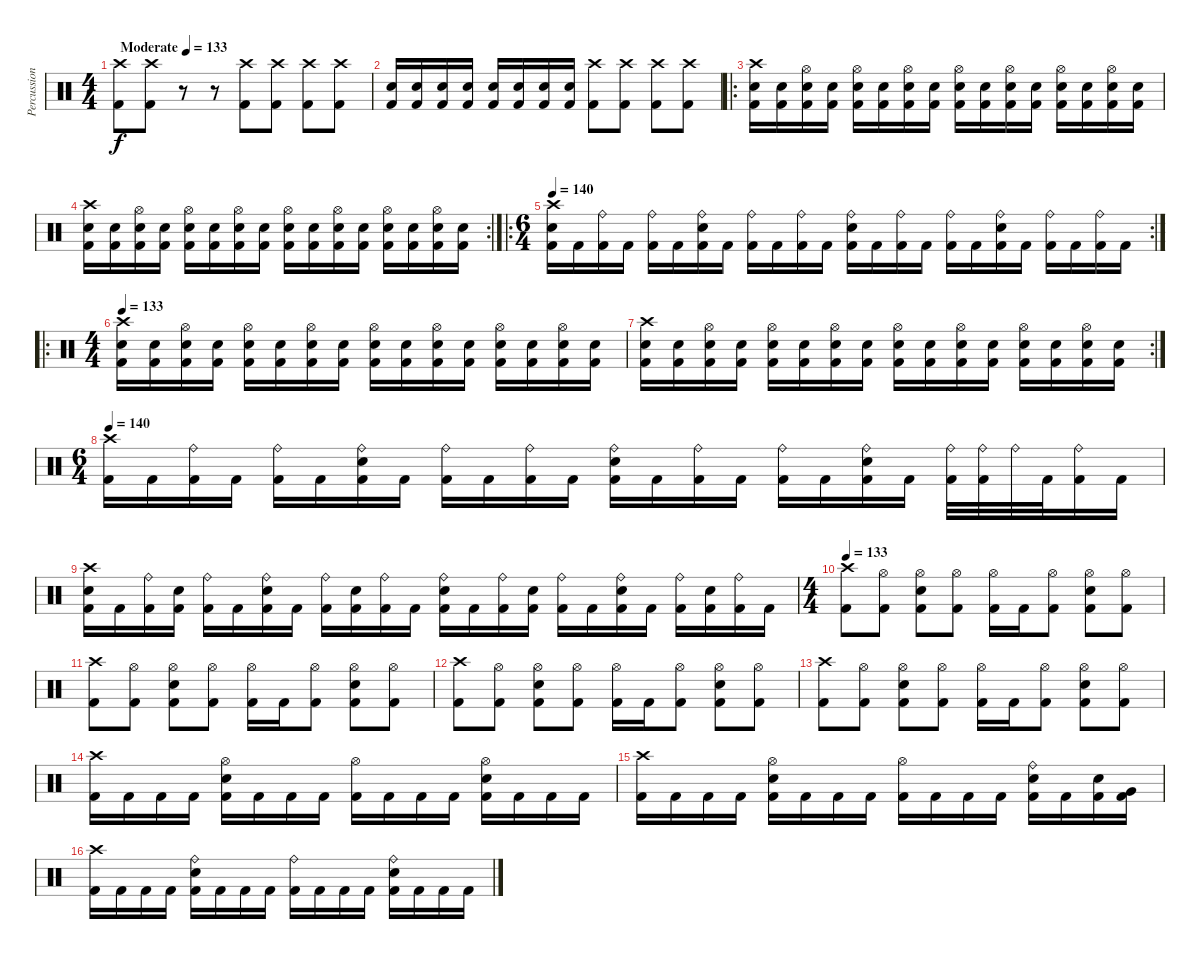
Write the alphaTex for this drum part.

\track ("Percussion" "Percussion") {instrument percussion}
\staff {score}
\articulation defaults
\ts (4 4)
\tempo (133 "Moderate")
\clef neutral
\ks c
("Crash high (hit)" "Kick (hit) 2").8{dy f} ("Crash high (hit)" "Kick (hit) 2").8 r.8{volume 0} r.8 ("Crash high (hit)" "Kick (hit) 2").8{volume 13} ("Crash high (hit)" "Kick (hit) 2").8 ("Crash high (hit)" "Kick (hit) 2").8 ("Crash high (hit)" "Kick (hit) 2").8 |
("Snare (hit) 2" "Kick (hit) 2").16{volume 13} ("Snare (hit) 2" "Kick (hit) 2").16 ("Snare (hit) 2" "Kick (hit) 2").16 ("Snare (hit) 2" "Kick (hit) 2").16 ("Snare (hit) 2" "Kick (hit) 2").16 ("Snare (hit) 2" "Kick (hit) 2").16 ("Snare (hit) 2" "Kick (hit) 2").16 ("Snare (hit) 2" "Kick (hit) 2").16 ("Crash high (hit)" "Kick (hit) 2").8 ("Crash high (hit)" "Kick (hit) 2").8 ("Crash high (hit)" "Kick (hit) 2").8 ("Crash high (hit)" "Kick (hit) 2").8 |
\ro
("Crash high (hit)" "Snare (hit) 2" "Kick (hit) 2").16 ("Snare (hit) 2" "Kick (hit) 2").16 ("Hi-Hat (open)" "Snare (hit) 2" "Kick (hit) 2").16 ("Snare (hit) 2" "Kick (hit) 2").16 ("Hi-Hat (open)" "Snare (hit) 2" "Kick (hit) 2").16 ("Snare (hit) 2" "Kick (hit) 2").16 ("Hi-Hat (open)" "Snare (hit) 2" "Kick (hit) 2").16 ("Snare (hit) 2" "Kick (hit) 2").16 ("Hi-Hat (open)" "Snare (hit) 2" "Kick (hit) 2").16 ("Snare (hit) 2" "Kick (hit) 2").16 ("Hi-Hat (open)" "Snare (hit) 2" "Kick (hit) 2").16 ("Snare (hit) 2" "Kick (hit) 2").16 ("Hi-Hat (open)" "Snare (hit) 2" "Kick (hit) 2").16 ("Snare (hit) 2" "Kick (hit) 2").16 ("Hi-Hat (open)" "Snare (hit) 2" "Kick (hit) 2").16 ("Snare (hit) 2" "Kick (hit) 2").16 |
\rc 2
("Crash high (hit)" "Snare (hit) 2" "Kick (hit) 2").16 ("Snare (hit) 2" "Kick (hit) 2").16 ("Hi-Hat (open)" "Snare (hit) 2" "Kick (hit) 2").16 ("Snare (hit) 2" "Kick (hit) 2").16 ("Hi-Hat (open)" "Snare (hit) 2" "Kick (hit) 2").16 ("Snare (hit) 2" "Kick (hit) 2").16 ("Hi-Hat (open)" "Snare (hit) 2" "Kick (hit) 2").16 ("Snare (hit) 2" "Kick (hit) 2").16 ("Hi-Hat (open)" "Snare (hit) 2" "Kick (hit) 2").16 ("Snare (hit) 2" "Kick (hit) 2").16 ("Hi-Hat (open)" "Snare (hit) 2" "Kick (hit) 2").16 ("Snare (hit) 2" "Kick (hit) 2").16 ("Hi-Hat (open)" "Snare (hit) 2" "Kick (hit) 2").16 ("Snare (hit) 2" "Kick (hit) 2").16 ("Hi-Hat (open)" "Snare (hit) 2" "Kick (hit) 2").16 ("Snare (hit) 2" "Kick (hit) 2").16 |
\ro
\rc 2
\ts (6 4)
\tempo 140
("Crash high (hit)" "Snare (hit) 2" "Kick (hit) 2").16 "Kick (hit) 2".16 ("Ride (bell)" "Kick (hit) 2").16 "Kick (hit) 2".16 ("Ride (bell)" "Kick (hit) 2").16 "Kick (hit) 2".16 ("Ride (bell)" "Snare (hit) 2" "Kick (hit) 2").16 "Kick (hit) 2".16 ("Ride (bell)" "Kick (hit) 2").16 "Kick (hit) 2".16 ("Ride (bell)" "Kick (hit) 2").16 "Kick (hit) 2".16 ("Ride (bell)" "Snare (hit) 2" "Kick (hit) 2").16 "Kick (hit) 2".16 ("Ride (bell)" "Kick (hit) 2").16 "Kick (hit) 2".16 ("Ride (bell)" "Kick (hit) 2").16 "Kick (hit) 2".16 ("Ride (bell)" "Snare (hit) 2" "Kick (hit) 2").16 "Kick (hit) 2".16 ("Ride (bell)" "Kick (hit) 2").16 "Kick (hit) 2".16 ("Ride (bell)" "Kick (hit) 2").16 "Kick (hit) 2".16 |
\ro
\ts (4 4)
\tempo 133
("Crash high (hit)" "Snare (hit) 2" "Kick (hit) 2").16 ("Snare (hit) 2" "Kick (hit) 2").16 ("Hi-Hat (open)" "Snare (hit) 2" "Kick (hit) 2").16 ("Snare (hit) 2" "Kick (hit) 2").16 ("Hi-Hat (open)" "Snare (hit) 2" "Kick (hit) 2").16 ("Snare (hit) 2" "Kick (hit) 2").16 ("Hi-Hat (open)" "Snare (hit) 2" "Kick (hit) 2").16 ("Snare (hit) 2" "Kick (hit) 2").16 ("Hi-Hat (open)" "Snare (hit) 2" "Kick (hit) 2").16 ("Snare (hit) 2" "Kick (hit) 2").16 ("Hi-Hat (open)" "Snare (hit) 2" "Kick (hit) 2").16 ("Snare (hit) 2" "Kick (hit) 2").16 ("Hi-Hat (open)" "Snare (hit) 2" "Kick (hit) 2").16 ("Snare (hit) 2" "Kick (hit) 2").16 ("Hi-Hat (open)" "Snare (hit) 2" "Kick (hit) 2").16 ("Snare (hit) 2" "Kick (hit) 2").16 |
\rc 2
("Crash high (hit)" "Snare (hit) 2" "Kick (hit) 2").16 ("Snare (hit) 2" "Kick (hit) 2").16 ("Hi-Hat (open)" "Snare (hit) 2" "Kick (hit) 2").16 ("Snare (hit) 2" "Kick (hit) 2").16 ("Hi-Hat (open)" "Snare (hit) 2" "Kick (hit) 2").16 ("Snare (hit) 2" "Kick (hit) 2").16 ("Hi-Hat (open)" "Snare (hit) 2" "Kick (hit) 2").16 ("Snare (hit) 2" "Kick (hit) 2").16 ("Hi-Hat (open)" "Snare (hit) 2" "Kick (hit) 2").16 ("Snare (hit) 2" "Kick (hit) 2").16 ("Hi-Hat (open)" "Snare (hit) 2" "Kick (hit) 2").16 ("Snare (hit) 2" "Kick (hit) 2").16 ("Hi-Hat (open)" "Snare (hit) 2" "Kick (hit) 2").16 ("Snare (hit) 2" "Kick (hit) 2").16 ("Hi-Hat (open)" "Snare (hit) 2" "Kick (hit) 2").16 ("Snare (hit) 2" "Kick (hit) 2").16 |
\ts (6 4)
\tempo 140
("Crash high (hit)" "Kick (hit) 2").16 "Kick (hit) 2".16 ("Ride (bell)" "Kick (hit) 2").16 "Kick (hit) 2".16 ("Ride (bell)" "Kick (hit) 2").16 "Kick (hit) 2".16 ("Ride (bell)" "Snare (hit) 2" "Kick (hit) 2").16 "Kick (hit) 2".16 ("Ride (bell)" "Kick (hit) 2").16 "Kick (hit) 2".16 ("Ride (bell)" "Kick (hit) 2").16 "Kick (hit) 2".16 ("Ride (bell)" "Snare (hit) 2" "Kick (hit) 2").16 "Kick (hit) 2".16 ("Ride (bell)" "Kick (hit) 2").16 "Kick (hit) 2".16 ("Ride (bell)" "Kick (hit) 2").16 "Kick (hit) 2".16 ("Ride (bell)" "Snare (hit) 2" "Kick (hit) 2").16 "Kick (hit) 2".16 ("Ride (bell)" "Kick (hit) 2").32 ("Ride (bell)" "Kick (hit) 2").32 "Ride (bell)".32 "Kick (hit) 2".32 ("Ride (bell)" "Kick (hit) 2").16 "Kick (hit) 2".16 |
("Crash high (hit)" "Snare (hit) 2" "Kick (hit) 2").16 "Kick (hit) 2".16 ("Ride (bell)" "Kick (hit) 2").16 ("Snare (hit) 2" "Kick (hit) 2").16 ("Ride (bell)" "Kick (hit) 2").16 "Kick (hit) 2".16 ("Ride (bell)" "Snare (hit) 2" "Kick (hit) 2").16 "Kick (hit) 2".16 ("Ride (bell)" "Kick (hit) 2").16 ("Snare (hit) 2" "Kick (hit) 2").16 ("Ride (bell)" "Kick (hit) 2").16 "Kick (hit) 2".16 ("Ride (bell)" "Snare (hit) 2" "Kick (hit) 2").16 "Kick (hit) 2".16 ("Ride (bell)" "Kick (hit) 2").16 ("Snare (hit) 2" "Kick (hit) 2").16 ("Ride (bell)" "Kick (hit) 2").16 "Kick (hit) 2".16 ("Ride (bell)" "Snare (hit) 2" "Kick (hit) 2").16 "Kick (hit) 2".16 ("Ride (bell)" "Kick (hit) 2").16 ("Snare (hit) 2" "Kick (hit) 2").16 ("Ride (bell)" "Kick (hit) 2").16 "Kick (hit) 2".16 |
\ts (4 4)
\tempo 133
("Crash high (hit)" "Kick (hit) 2").8 ("Hi-Hat (open)" "Kick (hit) 2").8 ("Hi-Hat (open)" "Snare (hit) 2" "Kick (hit) 2").8 ("Hi-Hat (open)" "Kick (hit) 2").8 ("Hi-Hat (open)" "Kick (hit) 2").16 "Kick (hit) 2".16 ("Hi-Hat (open)" "Kick (hit) 2").8 ("Hi-Hat (open)" "Snare (hit) 2" "Kick (hit) 2").8 ("Hi-Hat (open)" "Kick (hit) 2").8 |
("Crash high (hit)" "Kick (hit) 2").8 ("Hi-Hat (open)" "Kick (hit) 2").8 ("Hi-Hat (open)" "Snare (hit) 2" "Kick (hit) 2").8 ("Hi-Hat (open)" "Kick (hit) 2").8 ("Hi-Hat (open)" "Kick (hit) 2").16 "Kick (hit) 2".16 ("Hi-Hat (open)" "Kick (hit) 2").8 ("Hi-Hat (open)" "Snare (hit) 2" "Kick (hit) 2").8 ("Hi-Hat (open)" "Kick (hit) 2").8 |
("Crash high (hit)" "Kick (hit) 2").8 ("Hi-Hat (open)" "Kick (hit) 2").8 ("Hi-Hat (open)" "Snare (hit) 2" "Kick (hit) 2").8 ("Hi-Hat (open)" "Kick (hit) 2").8 ("Hi-Hat (open)" "Kick (hit) 2").16 "Kick (hit) 2".16 ("Hi-Hat (open)" "Kick (hit) 2").8 ("Hi-Hat (open)" "Snare (hit) 2" "Kick (hit) 2").8 ("Hi-Hat (open)" "Kick (hit) 2").8 |
("Crash high (hit)" "Kick (hit) 2").8 ("Hi-Hat (open)" "Kick (hit) 2").8 ("Hi-Hat (open)" "Snare (hit) 2" "Kick (hit) 2").8 ("Hi-Hat (open)" "Kick (hit) 2").8 ("Hi-Hat (open)" "Kick (hit) 2").16 "Kick (hit) 2".16 ("Hi-Hat (open)" "Kick (hit) 2").8 ("Hi-Hat (open)" "Snare (hit) 2" "Kick (hit) 2").8 ("Hi-Hat (open)" "Kick (hit) 2").8 |
("Crash high (hit)" "Kick (hit) 2").16 "Kick (hit) 2".16 "Kick (hit) 2".16 "Kick (hit) 2".16 ("Hi-Hat (open)" "Snare (hit) 2" "Kick (hit) 2").16 "Kick (hit) 2".16 "Kick (hit) 2".16 "Kick (hit) 2".16 ("Hi-Hat (open)" "Kick (hit) 2").16 "Kick (hit) 2".16 "Kick (hit) 2".16 "Kick (hit) 2".16 ("Hi-Hat (open)" "Snare (hit) 2" "Kick (hit) 2").16 "Kick (hit) 2".16 "Kick (hit) 2".16 "Kick (hit) 2".16 |
("Crash high (hit)" "Kick (hit) 2").16 "Kick (hit) 2".16 "Kick (hit) 2".16 "Kick (hit) 2".16 ("Hi-Hat (open)" "Snare (hit) 2" "Kick (hit) 2").16 "Kick (hit) 2".16 "Kick (hit) 2".16 "Kick (hit) 2".16 ("Hi-Hat (open)" "Kick (hit) 2").16 "Kick (hit) 2".16 "Kick (hit) 2".16 "Kick (hit) 2".16 ("Ride (bell)" "Snare (hit) 2" "Kick (hit) 2").16 "Kick (hit) 2".16 ("Snare (hit) 2" "Kick (hit) 2").16 ("Very Low Tom (hit)" "Kick (hit) 2").16 |
("Crash high (hit)" "Kick (hit) 2").16 "Kick (hit) 2".16 "Kick (hit) 2".16 "Kick (hit) 2".16 ("Ride (bell)" "Snare (hit) 2" "Kick (hit) 2").16 "Kick (hit) 2".16 "Kick (hit) 2".16 "Kick (hit) 2".16 ("Ride (bell)" "Kick (hit) 2").16 "Kick (hit) 2".16 "Kick (hit) 2".16 "Kick (hit) 2".16 ("Ride (bell)" "Snare (hit) 2" "Kick (hit) 2").16 "Kick (hit) 2".16 "Kick (hit) 2".16 "Kick (hit) 2".16
